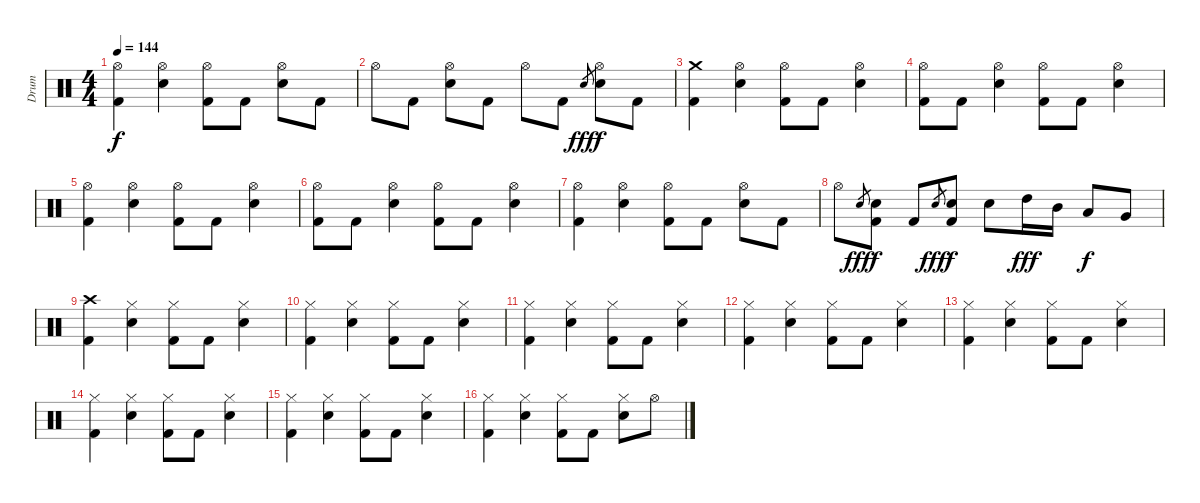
\track ("Drum" "Drum") {instrument percussion}
\staff {score}
\articulation defaults
\ts (4 4)
\tempo 144
\clef neutral
\ks c
("Hi-Hat (open)" "Kick (hit) 2").4{dy f} ("Hi-Hat (open)" "Electric Snare (hit)").4 ("Hi-Hat (open)" "Kick (hit) 2").8 "Kick (hit) 2".8 ("Hi-Hat (open)" "Electric Snare (hit)").8 "Kick (hit) 2".8 |
"Hi-Hat (open)".8 "Kick (hit) 2".8 ("Hi-Hat (open)" "Electric Snare (hit)").8 "Kick (hit) 2".8 "Hi-Hat (open)".8 "Kick (hit) 2".8 "Electric Snare (hit)".8{gr dy fff} ("Hi-Hat (open)" "Electric Snare (hit)").8{dy f} "Kick (hit) 2".8 |
("Crash medium (hit)" "Kick (hit) 2").4 ("Hi-Hat (open)" "Electric Snare (hit)").4 ("Hi-Hat (open)" "Kick (hit) 2").8 "Kick (hit) 2".8 ("Hi-Hat (open)" "Electric Snare (hit)").4 |
("Hi-Hat (open)" "Kick (hit) 2").8 "Kick (hit) 2".8 ("Hi-Hat (open)" "Electric Snare (hit)").4 ("Hi-Hat (open)" "Kick (hit) 2").8 "Kick (hit) 2".8 ("Hi-Hat (open)" "Electric Snare (hit)").4 |
("Hi-Hat (open)" "Kick (hit) 2").4 ("Hi-Hat (open)" "Electric Snare (hit)").4 ("Hi-Hat (open)" "Kick (hit) 2").8 "Kick (hit) 2".8 ("Hi-Hat (open)" "Electric Snare (hit)").4 |
("Hi-Hat (open)" "Kick (hit) 2").8 "Kick (hit) 2".8 ("Hi-Hat (open)" "Electric Snare (hit)").4 ("Hi-Hat (open)" "Kick (hit) 2").8 "Kick (hit) 2".8 ("Hi-Hat (open)" "Electric Snare (hit)").4 |
("Hi-Hat (open)" "Kick (hit) 2").4 ("Hi-Hat (open)" "Electric Snare (hit)").4 ("Hi-Hat (open)" "Kick (hit) 2").8 "Kick (hit) 2".8 ("Hi-Hat (open)" "Electric Snare (hit)").8 "Kick (hit) 2".8 |
"Hi-Hat (open)".8 "Electric Snare (hit)".8{gr dy fff} ("Electric Snare (hit)" "Kick (hit) 2").8{dy f} "Kick (hit) 2".8 "Electric Snare (hit)".8{gr dy fff} ("Electric Snare (hit)" "Kick (hit) 2").8{dy f} "Electric Snare (hit)".8 "High Tom (hit)".16{dy fff} "Mid Tom (hit)".16 "Low Tom (hit)".8{dy f} "Very Low Tom (hit)".8 |
("Crash high (hit)" "Kick (hit) 2").4 ("Hi-Hat (closed)" "Electric Snare (hit)").4 ("Hi-Hat (closed)" "Kick (hit) 2").8 "Kick (hit) 2".8 ("Hi-Hat (closed)" "Electric Snare (hit)").4 |
("Hi-Hat (closed)" "Kick (hit) 2").4 ("Hi-Hat (closed)" "Electric Snare (hit)").4 ("Hi-Hat (closed)" "Kick (hit) 2").8 "Kick (hit) 2".8 ("Hi-Hat (closed)" "Electric Snare (hit)").4 |
("Hi-Hat (closed)" "Kick (hit) 2").4 ("Hi-Hat (closed)" "Electric Snare (hit)").4 ("Hi-Hat (closed)" "Kick (hit) 2").8 "Kick (hit) 2".8 ("Hi-Hat (closed)" "Electric Snare (hit)").4 |
("Hi-Hat (closed)" "Kick (hit) 2").4 ("Hi-Hat (closed)" "Electric Snare (hit)").4 ("Hi-Hat (closed)" "Kick (hit) 2").8 "Kick (hit) 2".8 ("Hi-Hat (closed)" "Electric Snare (hit)").4 |
("Hi-Hat (closed)" "Kick (hit) 2").4 ("Hi-Hat (closed)" "Electric Snare (hit)").4 ("Hi-Hat (closed)" "Kick (hit) 2").8 "Kick (hit) 2".8 ("Hi-Hat (closed)" "Electric Snare (hit)").4 |
("Hi-Hat (closed)" "Kick (hit) 2").4 ("Hi-Hat (closed)" "Electric Snare (hit)").4 ("Hi-Hat (closed)" "Kick (hit) 2").8 "Kick (hit) 2".8 ("Hi-Hat (closed)" "Electric Snare (hit)").4 |
("Hi-Hat (closed)" "Kick (hit) 2").4 ("Hi-Hat (closed)" "Electric Snare (hit)").4 ("Hi-Hat (closed)" "Kick (hit) 2").8 "Kick (hit) 2".8 ("Hi-Hat (closed)" "Electric Snare (hit)").4 |
("Hi-Hat (closed)" "Kick (hit) 2").4 ("Hi-Hat (closed)" "Electric Snare (hit)").4 ("Hi-Hat (closed)" "Kick (hit) 2").8 "Kick (hit) 2".8 ("Hi-Hat (closed)" "Electric Snare (hit)").8 "Hi-Hat (open)".8
